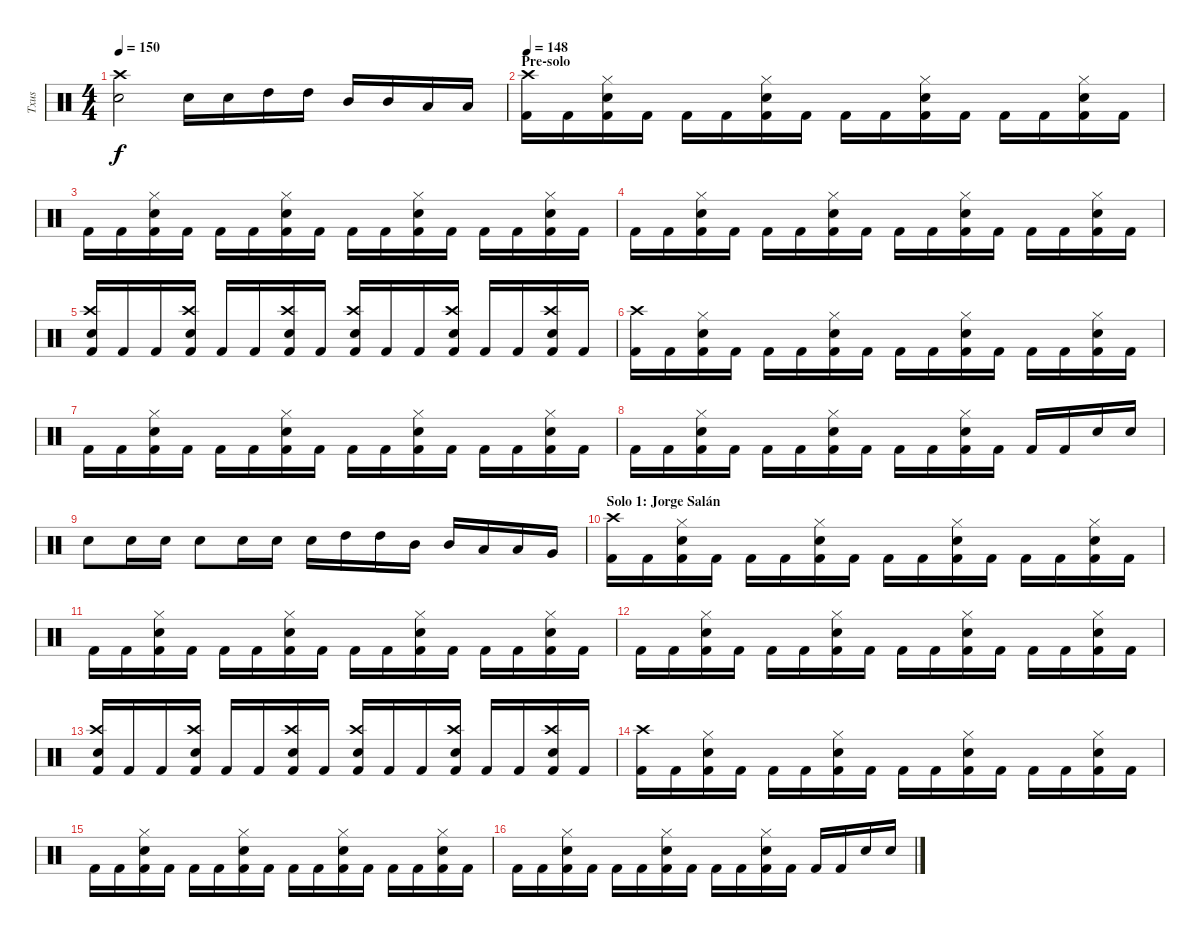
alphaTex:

\track ("Txus" "Txus") {instrument percussion}
\staff {score}
\articulation defaults
\ts (4 4)
\tempo 150
\clef neutral
\ks c
("Electric Snare (hit)" "Crash high (hit)").2{dy f} "Electric Snare (hit)".16 "Electric Snare (hit)".16 "High Tom (hit)".16 "High Tom (hit)".16 "Mid Tom (hit)".16 "Mid Tom (hit)".16 "Low Tom (hit)".16 "Low Tom (hit)".16 |
\section ("" "Pre-solo")
\tempo 148
("Kick (hit) 2" "Crash high (hit)").16 "Kick (hit) 2".16 ("Kick (hit) 2" "Electric Snare (hit)" "Hi-Hat (closed)").16 "Kick (hit) 2".16 "Kick (hit) 2".16 "Kick (hit) 2".16 ("Kick (hit) 2" "Electric Snare (hit)" "Hi-Hat (closed)").16 "Kick (hit) 2".16 "Kick (hit) 2".16 "Kick (hit) 2".16 ("Kick (hit) 2" "Electric Snare (hit)" "Hi-Hat (closed)").16 "Kick (hit) 2".16 "Kick (hit) 2".16 "Kick (hit) 2".16 ("Kick (hit) 2" "Electric Snare (hit)" "Hi-Hat (closed)").16 "Kick (hit) 2".16 |
"Kick (hit) 2".16 "Kick (hit) 2".16 ("Kick (hit) 2" "Electric Snare (hit)" "Hi-Hat (closed)").16 "Kick (hit) 2".16 "Kick (hit) 2".16 "Kick (hit) 2".16 ("Kick (hit) 2" "Electric Snare (hit)" "Hi-Hat (closed)").16 "Kick (hit) 2".16 "Kick (hit) 2".16 "Kick (hit) 2".16 ("Kick (hit) 2" "Electric Snare (hit)" "Hi-Hat (closed)").16 "Kick (hit) 2".16 "Kick (hit) 2".16 "Kick (hit) 2".16 ("Kick (hit) 2" "Electric Snare (hit)" "Hi-Hat (closed)").16 "Kick (hit) 2".16 |
"Kick (hit) 2".16 "Kick (hit) 2".16 ("Kick (hit) 2" "Electric Snare (hit)" "Hi-Hat (closed)").16 "Kick (hit) 2".16 "Kick (hit) 2".16 "Kick (hit) 2".16 ("Kick (hit) 2" "Electric Snare (hit)" "Hi-Hat (closed)").16 "Kick (hit) 2".16 "Kick (hit) 2".16 "Kick (hit) 2".16 ("Kick (hit) 2" "Electric Snare (hit)" "Hi-Hat (closed)").16 "Kick (hit) 2".16 "Kick (hit) 2".16 "Kick (hit) 2".16 ("Kick (hit) 2" "Electric Snare (hit)" "Hi-Hat (closed)").16 "Kick (hit) 2".16 |
("Kick (hit) 2" "Electric Snare (hit)" "Crash high (hit)").16 "Kick (hit) 2".16 "Kick (hit) 2".16 ("Kick (hit) 2" "Electric Snare (hit)" "Crash high (hit)").16 "Kick (hit) 2".16 "Kick (hit) 2".16 ("Kick (hit) 2" "Electric Snare (hit)" "Crash high (hit)").16 "Kick (hit) 2".16 ("Kick (hit) 2" "Electric Snare (hit)" "Crash high (hit)").16 "Kick (hit) 2".16 "Kick (hit) 2".16 ("Kick (hit) 2" "Electric Snare (hit)" "Crash high (hit)").16 "Kick (hit) 2".16 "Kick (hit) 2".16 ("Kick (hit) 2" "Electric Snare (hit)" "Crash high (hit)").16 "Kick (hit) 2".16 |
("Kick (hit) 2" "Crash high (hit)").16 "Kick (hit) 2".16 ("Kick (hit) 2" "Electric Snare (hit)" "Hi-Hat (closed)").16 "Kick (hit) 2".16 "Kick (hit) 2".16 "Kick (hit) 2".16 ("Kick (hit) 2" "Electric Snare (hit)" "Hi-Hat (closed)").16 "Kick (hit) 2".16 "Kick (hit) 2".16 "Kick (hit) 2".16 ("Kick (hit) 2" "Electric Snare (hit)" "Hi-Hat (closed)").16 "Kick (hit) 2".16 "Kick (hit) 2".16 "Kick (hit) 2".16 ("Kick (hit) 2" "Electric Snare (hit)" "Hi-Hat (closed)").16 "Kick (hit) 2".16 |
"Kick (hit) 2".16 "Kick (hit) 2".16 ("Kick (hit) 2" "Electric Snare (hit)" "Hi-Hat (closed)").16 "Kick (hit) 2".16 "Kick (hit) 2".16 "Kick (hit) 2".16 ("Kick (hit) 2" "Electric Snare (hit)" "Hi-Hat (closed)").16 "Kick (hit) 2".16 "Kick (hit) 2".16 "Kick (hit) 2".16 ("Kick (hit) 2" "Electric Snare (hit)" "Hi-Hat (closed)").16 "Kick (hit) 2".16 "Kick (hit) 2".16 "Kick (hit) 2".16 ("Kick (hit) 2" "Electric Snare (hit)" "Hi-Hat (closed)").16 "Kick (hit) 2".16 |
"Kick (hit) 2".16 "Kick (hit) 2".16 ("Kick (hit) 2" "Electric Snare (hit)" "Hi-Hat (closed)").16 "Kick (hit) 2".16 "Kick (hit) 2".16 "Kick (hit) 2".16 ("Kick (hit) 2" "Electric Snare (hit)" "Hi-Hat (closed)").16 "Kick (hit) 2".16 "Kick (hit) 2".16 "Kick (hit) 2".16 ("Kick (hit) 2" "Electric Snare (hit)" "Hi-Hat (closed)").16 "Kick (hit) 2".16 "Kick (hit) 2".16 "Kick (hit) 2".16 "Electric Snare (hit)".16 "Electric Snare (hit)".16 |
"Electric Snare (hit)".8 "Electric Snare (hit)".16 "Electric Snare (hit)".16 "Electric Snare (hit)".8 "Electric Snare (hit)".16 "Electric Snare (hit)".16 "Electric Snare (hit)".16 "High Tom (hit)".16 "High Tom (hit)".16 "Mid Tom (hit)".16 "Mid Tom (hit)".16 "Low Tom (hit)".16 "Low Tom (hit)".16 "Very Low Tom (hit)".16 |
\section ("" "Solo 1: Jorge Salán")
("Kick (hit) 2" "Crash high (hit)").16 "Kick (hit) 2".16 ("Kick (hit) 2" "Electric Snare (hit)" "Hi-Hat (closed)").16 "Kick (hit) 2".16 "Kick (hit) 2".16 "Kick (hit) 2".16 ("Kick (hit) 2" "Electric Snare (hit)" "Hi-Hat (closed)").16 "Kick (hit) 2".16 "Kick (hit) 2".16 "Kick (hit) 2".16 ("Kick (hit) 2" "Electric Snare (hit)" "Hi-Hat (closed)").16 "Kick (hit) 2".16 "Kick (hit) 2".16 "Kick (hit) 2".16 ("Kick (hit) 2" "Electric Snare (hit)" "Hi-Hat (closed)").16 "Kick (hit) 2".16 |
"Kick (hit) 2".16 "Kick (hit) 2".16 ("Kick (hit) 2" "Electric Snare (hit)" "Hi-Hat (closed)").16 "Kick (hit) 2".16 "Kick (hit) 2".16 "Kick (hit) 2".16 ("Kick (hit) 2" "Electric Snare (hit)" "Hi-Hat (closed)").16 "Kick (hit) 2".16 "Kick (hit) 2".16 "Kick (hit) 2".16 ("Kick (hit) 2" "Electric Snare (hit)" "Hi-Hat (closed)").16 "Kick (hit) 2".16 "Kick (hit) 2".16 "Kick (hit) 2".16 ("Kick (hit) 2" "Electric Snare (hit)" "Hi-Hat (closed)").16 "Kick (hit) 2".16 |
"Kick (hit) 2".16 "Kick (hit) 2".16 ("Kick (hit) 2" "Electric Snare (hit)" "Hi-Hat (closed)").16 "Kick (hit) 2".16 "Kick (hit) 2".16 "Kick (hit) 2".16 ("Kick (hit) 2" "Electric Snare (hit)" "Hi-Hat (closed)").16 "Kick (hit) 2".16 "Kick (hit) 2".16 "Kick (hit) 2".16 ("Kick (hit) 2" "Electric Snare (hit)" "Hi-Hat (closed)").16 "Kick (hit) 2".16 "Kick (hit) 2".16 "Kick (hit) 2".16 ("Kick (hit) 2" "Electric Snare (hit)" "Hi-Hat (closed)").16 "Kick (hit) 2".16 |
("Kick (hit) 2" "Electric Snare (hit)" "Crash high (hit)").16 "Kick (hit) 2".16 "Kick (hit) 2".16 ("Kick (hit) 2" "Electric Snare (hit)" "Crash high (hit)").16 "Kick (hit) 2".16 "Kick (hit) 2".16 ("Kick (hit) 2" "Electric Snare (hit)" "Crash high (hit)").16 "Kick (hit) 2".16 ("Kick (hit) 2" "Electric Snare (hit)" "Crash high (hit)").16 "Kick (hit) 2".16 "Kick (hit) 2".16 ("Kick (hit) 2" "Electric Snare (hit)" "Crash high (hit)").16 "Kick (hit) 2".16 "Kick (hit) 2".16 ("Kick (hit) 2" "Electric Snare (hit)" "Crash high (hit)").16 "Kick (hit) 2".16 |
("Kick (hit) 2" "Crash high (hit)").16 "Kick (hit) 2".16 ("Kick (hit) 2" "Electric Snare (hit)" "Hi-Hat (closed)").16 "Kick (hit) 2".16 "Kick (hit) 2".16 "Kick (hit) 2".16 ("Kick (hit) 2" "Electric Snare (hit)" "Hi-Hat (closed)").16 "Kick (hit) 2".16 "Kick (hit) 2".16 "Kick (hit) 2".16 ("Kick (hit) 2" "Electric Snare (hit)" "Hi-Hat (closed)").16 "Kick (hit) 2".16 "Kick (hit) 2".16 "Kick (hit) 2".16 ("Kick (hit) 2" "Electric Snare (hit)" "Hi-Hat (closed)").16 "Kick (hit) 2".16 |
"Kick (hit) 2".16 "Kick (hit) 2".16 ("Kick (hit) 2" "Electric Snare (hit)" "Hi-Hat (closed)").16 "Kick (hit) 2".16 "Kick (hit) 2".16 "Kick (hit) 2".16 ("Kick (hit) 2" "Electric Snare (hit)" "Hi-Hat (closed)").16 "Kick (hit) 2".16 "Kick (hit) 2".16 "Kick (hit) 2".16 ("Kick (hit) 2" "Electric Snare (hit)" "Hi-Hat (closed)").16 "Kick (hit) 2".16 "Kick (hit) 2".16 "Kick (hit) 2".16 ("Kick (hit) 2" "Electric Snare (hit)" "Hi-Hat (closed)").16 "Kick (hit) 2".16 |
"Kick (hit) 2".16 "Kick (hit) 2".16 ("Kick (hit) 2" "Electric Snare (hit)" "Hi-Hat (closed)").16 "Kick (hit) 2".16 "Kick (hit) 2".16 "Kick (hit) 2".16 ("Kick (hit) 2" "Electric Snare (hit)" "Hi-Hat (closed)").16 "Kick (hit) 2".16 "Kick (hit) 2".16 "Kick (hit) 2".16 ("Kick (hit) 2" "Electric Snare (hit)" "Hi-Hat (closed)").16 "Kick (hit) 2".16 "Kick (hit) 2".16 "Kick (hit) 2".16 "Electric Snare (hit)".16 "Electric Snare (hit)".16
